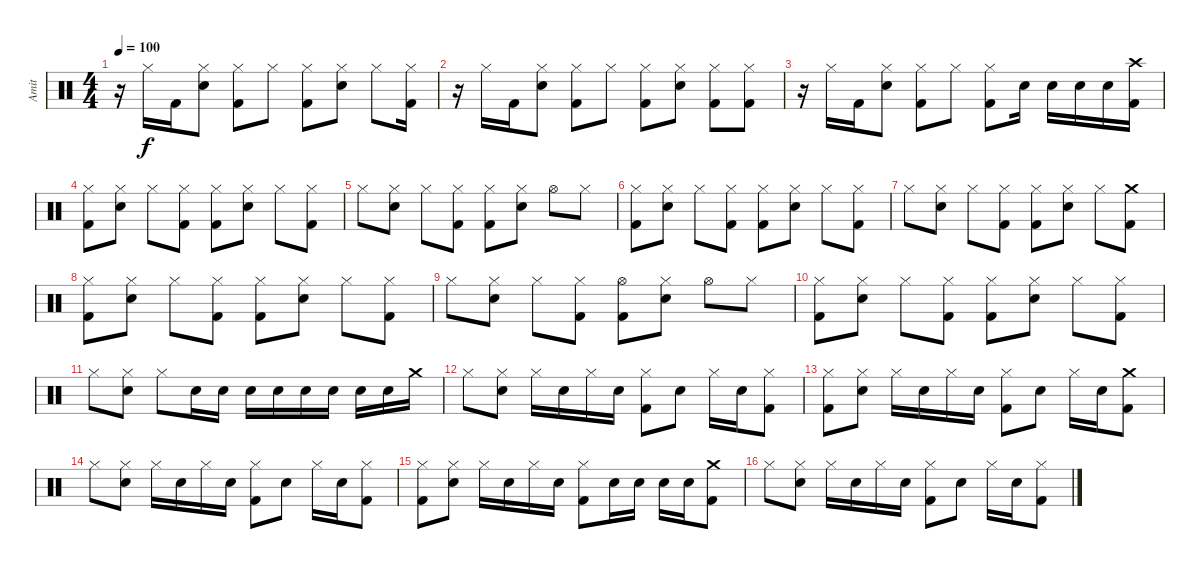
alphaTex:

\track ("Amit" "Amit") {instrument percussion}
\staff {score}
\articulation defaults
\ts (4 4)
\tempo 100
\clef neutral
\ks c
r.16{dy f} "Hi-Hat (closed)".16 "Kick (hit) 2".16 ("Hi-Hat (closed)" "Snare (hit) 2").8 ("Hi-Hat (closed)" "Kick (hit) 2").8 "Hi-Hat (closed)".8 ("Hi-Hat (closed)" "Kick (hit) 2").8 ("Hi-Hat (closed)" "Snare (hit) 2").8 "Hi-Hat (closed)".8 ("Hi-Hat (closed)" "Kick (hit) 2").16 |
r.16 "Hi-Hat (closed)".16 "Kick (hit) 2".16 ("Hi-Hat (closed)" "Snare (hit) 2").8 ("Hi-Hat (closed)" "Kick (hit) 2").8 "Hi-Hat (closed)".8 ("Hi-Hat (closed)" "Kick (hit) 2").8 ("Hi-Hat (closed)" "Snare (hit) 2").8 ("Hi-Hat (closed)" "Kick (hit) 2").8 ("Hi-Hat (closed)" "Kick (hit) 2").8 |
r.16 "Hi-Hat (closed)".16 "Kick (hit) 2".16 ("Hi-Hat (closed)" "Snare (hit) 2").8 ("Hi-Hat (closed)" "Kick (hit) 2").8 "Hi-Hat (closed)".8 ("Hi-Hat (closed)" "Kick (hit) 2").8 "Snare (hit) 2".16 "Snare (hit) 2".16 "Snare (hit) 2".16 "Snare (hit) 2".16 ("Kick (hit) 2" "Crash high (hit)").16 |
("Hi-Hat (closed)" "Kick (hit) 2").8 ("Hi-Hat (closed)" "Snare (hit) 2").8 "Hi-Hat (closed)".8 ("Hi-Hat (closed)" "Kick (hit) 2").8 ("Hi-Hat (closed)" "Kick (hit) 2").8 ("Hi-Hat (closed)" "Snare (hit) 2").8 "Hi-Hat (closed)".8 ("Hi-Hat (closed)" "Kick (hit) 2").8 |
"Hi-Hat (closed)".8 ("Hi-Hat (closed)" "Snare (hit) 2").8 "Hi-Hat (closed)".8 ("Hi-Hat (closed)" "Kick (hit) 2").8 ("Hi-Hat (closed)" "Kick (hit) 2").8 ("Hi-Hat (closed)" "Snare (hit) 2").8 "Hi-Hat (open)".8 "Hi-Hat (closed)".8 |
("Hi-Hat (closed)" "Kick (hit) 2").8 ("Hi-Hat (closed)" "Snare (hit) 2").8 "Hi-Hat (closed)".8 ("Hi-Hat (closed)" "Kick (hit) 2").8 ("Hi-Hat (closed)" "Kick (hit) 2").8 ("Hi-Hat (closed)" "Snare (hit) 2").8 "Hi-Hat (closed)".8 ("Hi-Hat (closed)" "Kick (hit) 2").8 |
"Hi-Hat (closed)".8 ("Hi-Hat (closed)" "Snare (hit) 2").8 "Hi-Hat (closed)".8 ("Hi-Hat (closed)" "Kick (hit) 2").8 ("Hi-Hat (closed)" "Kick (hit) 2").8 ("Hi-Hat (closed)" "Snare (hit) 2").8 "Hi-Hat (closed)".8 ("Crash medium (hit)" "Kick (hit) 2").8 |
("Hi-Hat (closed)" "Kick (hit) 2").8 ("Hi-Hat (closed)" "Snare (hit) 2").8 "Hi-Hat (closed)".8 ("Hi-Hat (closed)" "Kick (hit) 2").8 ("Hi-Hat (closed)" "Kick (hit) 2").8 ("Hi-Hat (closed)" "Snare (hit) 2").8 "Hi-Hat (closed)".8 ("Hi-Hat (closed)" "Kick (hit) 2").8 |
"Hi-Hat (closed)".8 ("Hi-Hat (closed)" "Snare (hit) 2").8 "Hi-Hat (closed)".8 ("Hi-Hat (closed)" "Kick (hit) 2").8 ("Hi-Hat (open)" "Kick (hit) 2").8 ("Hi-Hat (closed)" "Snare (hit) 2").8 "Hi-Hat (open)".8 "Hi-Hat (closed)".8 |
("Hi-Hat (closed)" "Kick (hit) 2").8 ("Hi-Hat (closed)" "Snare (hit) 2").8 "Hi-Hat (closed)".8 ("Hi-Hat (closed)" "Kick (hit) 2").8 ("Hi-Hat (closed)" "Kick (hit) 2").8 ("Hi-Hat (closed)" "Snare (hit) 2").8 "Hi-Hat (closed)".8 ("Hi-Hat (closed)" "Kick (hit) 2").8 |
"Hi-Hat (closed)".8 ("Hi-Hat (closed)" "Snare (hit) 2").8 "Hi-Hat (closed)".8 "Snare (hit) 2".16 "Snare (hit) 2".16 "Snare (hit) 2".16 "Snare (hit) 2".16 "Snare (hit) 2".16 "Snare (hit) 2".16 "Snare (hit) 2".16 "Snare (hit) 2".16 "Crash medium (hit)".16 |
"Hi-Hat (closed)".8 ("Hi-Hat (closed)" "Snare (hit) 2").8 "Hi-Hat (closed)".16 "Snare (hit) 2".16 "Hi-Hat (closed)".16 "Snare (hit) 2".16 ("Hi-Hat (closed)" "Kick (hit) 2").8 "Snare (hit) 2".8 "Hi-Hat (closed)".16 "Snare (hit) 2".16 ("Hi-Hat (closed)" "Kick (hit) 2").8 |
("Hi-Hat (closed)" "Kick (hit) 2").8 ("Hi-Hat (closed)" "Snare (hit) 2").8 "Hi-Hat (closed)".16 "Snare (hit) 2".16 "Hi-Hat (closed)".16 "Snare (hit) 2".16 ("Hi-Hat (closed)" "Kick (hit) 2").8 "Snare (hit) 2".8 "Hi-Hat (closed)".16 "Snare (hit) 2".16 ("Crash medium (hit)" "Kick (hit) 2").8 |
"Hi-Hat (closed)".8 ("Hi-Hat (closed)" "Snare (hit) 2").8 "Hi-Hat (closed)".16 "Snare (hit) 2".16 "Hi-Hat (closed)".16 "Snare (hit) 2".16 ("Hi-Hat (closed)" "Kick (hit) 2").8 "Snare (hit) 2".8 "Hi-Hat (closed)".16 "Snare (hit) 2".16 ("Hi-Hat (closed)" "Kick (hit) 2").8 |
("Hi-Hat (closed)" "Kick (hit) 2").8 ("Hi-Hat (closed)" "Snare (hit) 2").8 "Hi-Hat (closed)".16 "Snare (hit) 2".16 "Hi-Hat (closed)".16 "Snare (hit) 2".16 ("Hi-Hat (closed)" "Kick (hit) 2").8 "Snare (hit) 2".16 "Snare (hit) 2".16 "Snare (hit) 2".16 "Snare (hit) 2".16 ("Crash medium (hit)" "Kick (hit) 2").8 |
"Hi-Hat (closed)".8 ("Hi-Hat (closed)" "Snare (hit) 2").8 "Hi-Hat (closed)".16 "Snare (hit) 2".16 "Hi-Hat (closed)".16 "Snare (hit) 2".16 ("Hi-Hat (closed)" "Kick (hit) 2").8 "Snare (hit) 2".8 "Hi-Hat (closed)".16 "Snare (hit) 2".16 ("Hi-Hat (closed)" "Kick (hit) 2").8
